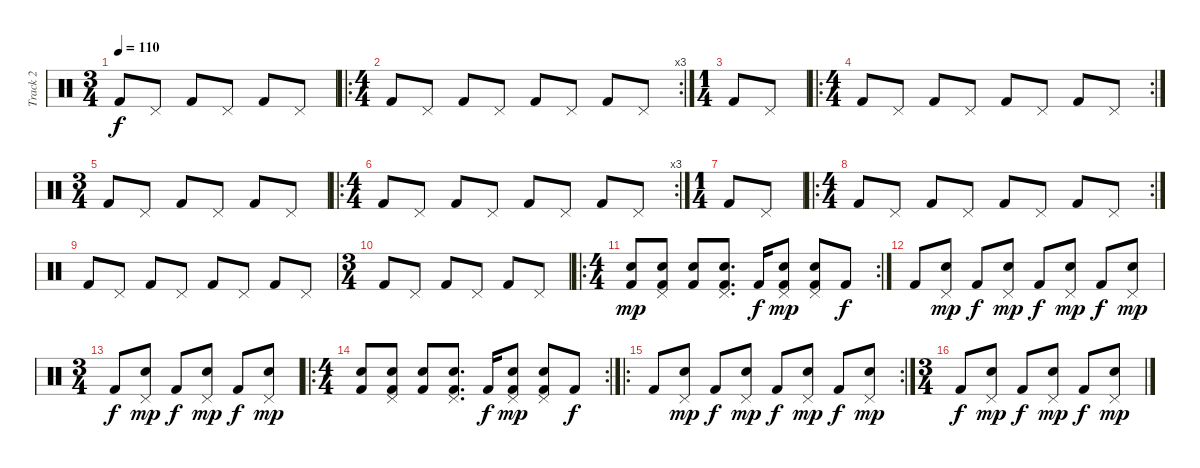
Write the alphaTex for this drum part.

\track ("Track 2" "Track 2") {instrument percussion}
\staff {score}
\articulation defaults
\ts (3 4)
\tempo 110
\clef neutral
\ks c "Kick (hit) 2".8{dy f} "Pedal Hi-Hat (hit)".8 "Kick (hit) 2".8 "Pedal Hi-Hat (hit)".8 "Kick (hit) 2".8 "Pedal Hi-Hat (hit)".8
|
\ro
\rc 3
\ts (4 4)
"Kick (hit) 2".8 "Pedal Hi-Hat (hit)".8 "Kick (hit) 2".8 "Pedal Hi-Hat (hit)".8 "Kick (hit) 2".8 "Pedal Hi-Hat (hit)".8 "Kick (hit) 2".8 "Pedal Hi-Hat (hit)".8 |
\ts (1 4)
"Kick (hit) 2".8 "Pedal Hi-Hat (hit)".8 |
\ro
\rc 2
\ts (4 4)
"Kick (hit) 2".8 "Pedal Hi-Hat (hit)".8 "Kick (hit) 2".8 "Pedal Hi-Hat (hit)".8 "Kick (hit) 2".8 "Pedal Hi-Hat (hit)".8 "Kick (hit) 2".8 "Pedal Hi-Hat (hit)".8 |
\ts (3 4)
"Kick (hit) 2".8 "Pedal Hi-Hat (hit)".8 "Kick (hit) 2".8 "Pedal Hi-Hat (hit)".8 "Kick (hit) 2".8 "Pedal Hi-Hat (hit)".8 |
\ro
\rc 3
\ts (4 4)
"Kick (hit) 2".8 "Pedal Hi-Hat (hit)".8 "Kick (hit) 2".8 "Pedal Hi-Hat (hit)".8 "Kick (hit) 2".8 "Pedal Hi-Hat (hit)".8 "Kick (hit) 2".8 "Pedal Hi-Hat (hit)".8 |
\ts (1 4)
"Kick (hit) 2".8 "Pedal Hi-Hat (hit)".8 |
\ro
\rc 2
\ts (4 4)
"Kick (hit) 2".8 "Pedal Hi-Hat (hit)".8 "Kick (hit) 2".8 "Pedal Hi-Hat (hit)".8 "Kick (hit) 2".8 "Pedal Hi-Hat (hit)".8 "Kick (hit) 2".8 "Pedal Hi-Hat (hit)".8 |
"Kick (hit) 2".8 "Pedal Hi-Hat (hit)".8 "Kick (hit) 2".8 "Pedal Hi-Hat (hit)".8 "Kick (hit) 2".8 "Pedal Hi-Hat (hit)".8 "Kick (hit) 2".8 "Pedal Hi-Hat (hit)".8 |
\ts (3 4)
"Kick (hit) 2".8 "Pedal Hi-Hat (hit)".8 "Kick (hit) 2".8 "Pedal Hi-Hat (hit)".8 "Kick (hit) 2".8 "Pedal Hi-Hat (hit)".8 |
\ro
\rc 2
\ts (4 4)
("Kick (hit) 2" "Hand Clap (hit)").8{dy mp} ("Kick (hit) 2" "Hand Clap (hit)" "Pedal Hi-Hat (hit)").8 ("Kick (hit) 2" "Hand Clap (hit)").8 ("Kick (hit) 2" "Hand Clap (hit)" "Pedal Hi-Hat (hit)").8{d} "Kick (hit) 2".16{dy f} ("Kick (hit) 2" "Hand Clap (hit)" "Pedal Hi-Hat (hit)").8{dy mp} ("Kick (hit) 2" "Hand Clap (hit)" "Pedal Hi-Hat (hit)").8 "Kick (hit) 2".8{dy f} |
"Kick (hit) 2".8 ("Pedal Hi-Hat (hit)" "Hand Clap (hit)").8{dy mp} "Kick (hit) 2".8{dy f} ("Pedal Hi-Hat (hit)" "Hand Clap (hit)").8{dy mp} "Kick (hit) 2".8{dy f} ("Pedal Hi-Hat (hit)" "Hand Clap (hit)").8{dy mp} "Kick (hit) 2".8{dy f} ("Pedal Hi-Hat (hit)" "Hand Clap (hit)").8{dy mp} |
\ts (3 4)
"Kick (hit) 2".8{dy f} ("Pedal Hi-Hat (hit)" "Hand Clap (hit)").8{dy mp} "Kick (hit) 2".8{dy f} ("Pedal Hi-Hat (hit)" "Hand Clap (hit)").8{dy mp} "Kick (hit) 2".8{dy f} ("Pedal Hi-Hat (hit)" "Hand Clap (hit)").8{dy mp} |
\ro
\rc 2
\ts (4 4)
("Kick (hit) 2" "Hand Clap (hit)").8 ("Kick (hit) 2" "Hand Clap (hit)" "Pedal Hi-Hat (hit)").8 ("Kick (hit) 2" "Hand Clap (hit)").8 ("Kick (hit) 2" "Hand Clap (hit)" "Pedal Hi-Hat (hit)").8{d} "Kick (hit) 2".16{dy f} ("Kick (hit) 2" "Hand Clap (hit)" "Pedal Hi-Hat (hit)").8{dy mp} ("Kick (hit) 2" "Hand Clap (hit)" "Pedal Hi-Hat (hit)").8 "Kick (hit) 2".8{dy f} |
\ro
\rc 2 "Kick (hit) 2".8
("Pedal Hi-Hat (hit)" "Hand Clap (hit)").8{dy mp} "Kick (hit) 2".8{dy f} ("Pedal Hi-Hat (hit)" "Hand Clap (hit)").8{dy mp} "Kick (hit) 2".8{dy f} ("Pedal Hi-Hat (hit)" "Hand Clap (hit)").8{dy mp} "Kick (hit) 2".8{dy f} ("Pedal Hi-Hat (hit)" "Hand Clap (hit)").8{dy mp} |
\ts (3 4)
"Kick (hit) 2".8{dy f} ("Pedal Hi-Hat (hit)" "Hand Clap (hit)").8{dy mp} "Kick (hit) 2".8{dy f} ("Pedal Hi-Hat (hit)" "Hand Clap (hit)").8{dy mp} "Kick (hit) 2".8{dy f} ("Pedal Hi-Hat (hit)" "Hand Clap (hit)").8{dy mp}
